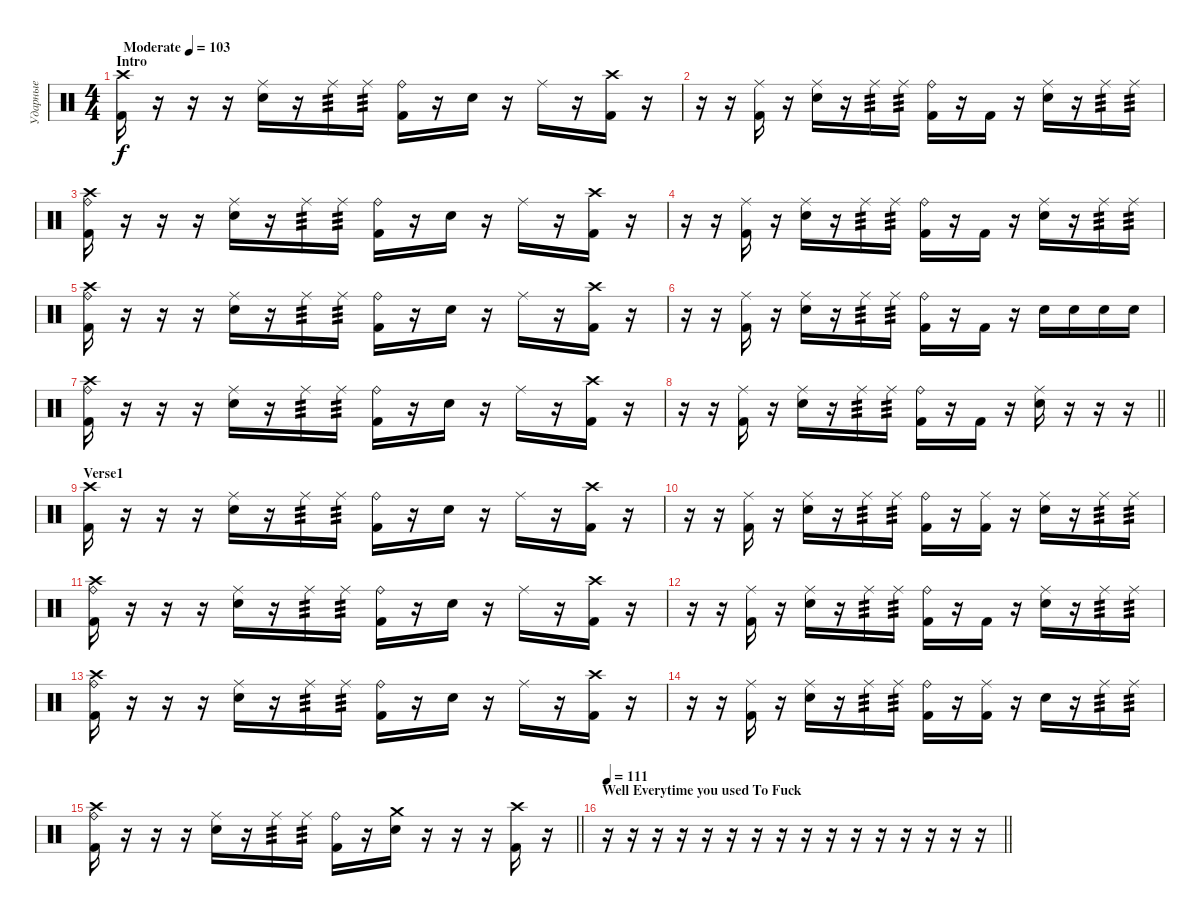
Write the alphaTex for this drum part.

\track ("Ударные" "Ударные") {instrument percussion}
\staff {score}
\articulation defaults
\ts (4 4)
\section ("" "Intro")
\tempo (103 "Moderate")
\clef neutral
\ks c
("Crash high (hit)" "Kick (hit) 2").16{dy f} r.16 r.16 r.16 ("Ride (middle)" "Electric Snare (hit)").16 r.16 "Ride (middle)".16{tp 3} "Ride (middle)".16{tp 3} ("Ride (bell)" "Kick (hit) 2").16 r.16 "Electric Snare (hit)".16 r.16 "Ride (middle)".16 r.16 ("Crash high (hit)" "Kick (hit) 2").16 r.16 |
r.16 r.16 ("Ride (middle)" "Kick (hit) 2").16 r.16 ("Ride (middle)" "Electric Snare (hit)").16 r.16 "Ride (middle)".16{tp 3} "Ride (middle)".16{tp 3} ("Ride (bell)" "Kick (hit) 2").16 r.16 "Kick (hit) 2".16 r.16 ("Ride (middle)" "Electric Snare (hit)").16 r.16 "Ride (middle)".16{tp 3} "Ride (middle)".16{tp 3} |
("Crash high (hit)" "Ride (bell)" "Kick (hit) 2").16 r.16 r.16 r.16 ("Ride (middle)" "Electric Snare (hit)").16 r.16 "Ride (middle)".16{tp 3} "Ride (middle)".16{tp 3} ("Ride (bell)" "Kick (hit) 2").16 r.16 "Electric Snare (hit)".16 r.16 "Ride (middle)".16 r.16 ("Crash high (hit)" "Kick (hit) 2").16 r.16 |
r.16 r.16 ("Ride (middle)" "Kick (hit) 2").16 r.16 ("Ride (middle)" "Electric Snare (hit)").16 r.16 "Ride (middle)".16{tp 3} "Ride (middle)".16{tp 3} ("Ride (bell)" "Kick (hit) 2").16 r.16 "Kick (hit) 2".16 r.16 ("Ride (middle)" "Electric Snare (hit)").16 r.16 "Ride (middle)".16{tp 3} "Ride (middle)".16{tp 3} |
("Crash high (hit)" "Ride (bell)" "Kick (hit) 2").16 r.16 r.16 r.16 ("Ride (middle)" "Electric Snare (hit)").16 r.16 "Ride (middle)".16{tp 3} "Ride (middle)".16{tp 3} ("Ride (bell)" "Kick (hit) 2").16 r.16 "Electric Snare (hit)".16 r.16 "Ride (middle)".16 r.16 ("Crash high (hit)" "Kick (hit) 2").16 r.16 |
r.16 r.16 ("Ride (middle)" "Kick (hit) 2").16 r.16 ("Ride (middle)" "Electric Snare (hit)").16 r.16 "Ride (middle)".16{tp 3} "Ride (middle)".16{tp 3} ("Ride (bell)" "Kick (hit) 2").16 r.16 "Kick (hit) 2".16 r.16 "Electric Snare (hit)".16 "Electric Snare (hit)".16 "Electric Snare (hit)".16 "Electric Snare (hit)".16 |
("Crash high (hit)" "Ride (bell)" "Kick (hit) 2").16 r.16 r.16 r.16 ("Ride (middle)" "Electric Snare (hit)").16 r.16 "Ride (middle)".16{tp 3} "Ride (middle)".16{tp 3} ("Ride (bell)" "Kick (hit) 2").16 r.16 "Electric Snare (hit)".16 r.16 "Ride (middle)".16 r.16 ("Crash high (hit)" "Kick (hit) 2").16 r.16 |
\barLineRight lightlight
r.16 r.16 ("Ride (middle)" "Kick (hit) 2").16 r.16 ("Ride (middle)" "Electric Snare (hit)").16 r.16 "Ride (middle)".16{tp 3} "Ride (middle)".16{tp 3} ("Ride (bell)" "Kick (hit) 2").16 r.16 "Kick (hit) 2".16 r.16 ("Ride (middle)" "Electric Snare (hit)").16 r.16 r.16 r.16 |
\section ("" "Verse1")
("Crash high (hit)" "Kick (hit) 2").16 r.16 r.16 r.16 ("Ride (middle)" "Electric Snare (hit)").16 r.16 "Ride (middle)".16{tp 3} "Ride (middle)".16{tp 3} ("Ride (bell)" "Kick (hit) 2").16 r.16 "Electric Snare (hit)".16 r.16 "Ride (middle)".16 r.16 ("Crash high (hit)" "Kick (hit) 2").16 r.16 |
r.16 r.16 ("Ride (middle)" "Kick (hit) 2").16 r.16 ("Ride (middle)" "Electric Snare (hit)").16 r.16 "Ride (middle)".16{tp 3} "Ride (middle)".16{tp 3} ("Ride (bell)" "Kick (hit) 2").16 r.16 ("Ride (middle)" "Kick (hit) 2").16 r.16 ("Ride (middle)" "Electric Snare (hit)").16 r.16 "Ride (middle)".16{tp 3} "Ride (middle)".16{tp 3} |
("Crash high (hit)" "Ride (bell)" "Kick (hit) 2").16 r.16 r.16 r.16 ("Ride (middle)" "Electric Snare (hit)").16 r.16 "Ride (middle)".16{tp 3} "Ride (middle)".16{tp 3} ("Ride (bell)" "Kick (hit) 2").16 r.16 "Electric Snare (hit)".16 r.16 "Ride (middle)".16 r.16 ("Crash high (hit)" "Kick (hit) 2").16 r.16 |
r.16 r.16 ("Ride (middle)" "Kick (hit) 2").16 r.16 ("Ride (middle)" "Electric Snare (hit)").16 r.16 "Ride (middle)".16{tp 3} "Ride (middle)".16{tp 3} ("Ride (bell)" "Kick (hit) 2").16 r.16 "Kick (hit) 2".16 r.16 ("Ride (middle)" "Electric Snare (hit)").16 r.16 "Ride (middle)".16{tp 3} "Ride (middle)".16{tp 3} |
("Crash high (hit)" "Ride (bell)" "Kick (hit) 2").16 r.16 r.16 r.16 ("Ride (middle)" "Electric Snare (hit)").16 r.16 "Ride (middle)".16{tp 3} "Ride (middle)".16{tp 3} ("Ride (bell)" "Kick (hit) 2").16 r.16 "Electric Snare (hit)".16 r.16 "Ride (middle)".16 r.16 ("Crash high (hit)" "Kick (hit) 2").16 r.16 |
r.16 r.16 ("Ride (middle)" "Kick (hit) 2").16 r.16 ("Ride (middle)" "Electric Snare (hit)").16 r.16 "Ride (middle)".16{tp 3} "Ride (middle)".16{tp 3} ("Ride (bell)" "Kick (hit) 2").16 r.16 ("Ride (middle)" "Kick (hit) 2").16 r.16 "Electric Snare (hit)".16 r.16 "Ride (middle)".16{tp 3} "Ride (middle)".16{tp 3} |
\barLineRight lightlight
("Crash high (hit)" "Ride (bell)" "Kick (hit) 2").16 r.16 r.16 r.16 ("Ride (middle)" "Electric Snare (hit)").16 r.16 "Ride (middle)".16{tp 3} "Ride (middle)".16{tp 3} ("Ride (bell)" "Kick (hit) 2").16 r.16 ("Crash medium (hit)" "Electric Snare (hit)").16 r.16 r.16 r.16 ("Crash high (hit)" "Kick (hit) 2").16 r.16 |
\section ("" "Well Everytime you used To Fuck")
\tempo 111
\barLineRight lightlight
r.16 r.16 r.16 r.16 r.16 r.16 r.16 r.16 r.16 r.16 r.16 r.16 r.16 r.16 r.16 r.16
